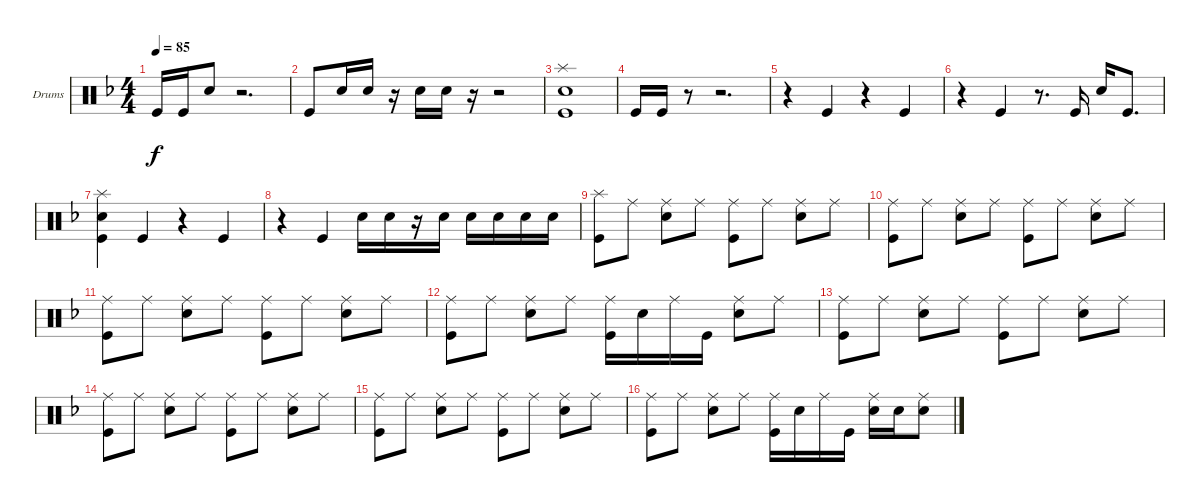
\bracketExtendMode groupsimilarinstruments
\firstSystemTrackNameOrientation horizontal
\otherSystemsTrackNameOrientation horizontal
\track ("Drumkit" "Drums") {instrument percussion}
\staff {score}
\articulation defaults
\ts (4 4)
\tempo 85
\clef neutral
\ks dminor "Kick (hit)".16{dy f} "Kick (hit)".16 "Snare (hit) 2".8
r.2{d} |
"Kick (hit)".8 "Snare (hit) 2".16 "Snare (hit) 2".16 r.16 "Snare (hit) 2".16 "Snare (hit) 2".16 r.16 r.2 |
("Kick (hit)" "Snare (hit) 2" "Splash (hit)").1 |
"Kick (hit)".16 "Kick (hit)".16 r.8 r.2{d} |
r.4 "Kick (hit)".4 r.4 "Kick (hit)".4 |
r.4 "Kick (hit)".4 r.8{d} "Kick (hit)".16 "Snare (hit) 2".16 "Kick (hit)".8{d} |
("Kick (hit)" "Snare (hit) 2" "Splash (hit)").4 "Kick (hit)".4 r.4 "Kick (hit)".4 |
r.4 "Kick (hit)".4 "Snare (hit) 2".16 "Snare (hit) 2".16 r.16 "Snare (hit) 2".16 "Snare (hit) 2".16 "Snare (hit) 2".16 "Snare (hit) 2".16 "Snare (hit) 2".16 |
("Splash (hit)" "Kick (hit)").8 "Ride (middle)".8 ("Ride (middle)" "Snare (hit) 2").8 "Ride (middle)".8 ("Ride (middle)" "Kick (hit)").8 "Ride (middle)".8 ("Ride (middle)" "Snare (hit) 2").8 "Ride (middle)".8 |
("Kick (hit)" "Ride (middle)").8 "Ride (middle)".8 ("Ride (middle)" "Snare (hit) 2").8 "Ride (middle)".8 ("Ride (middle)" "Kick (hit)").8 "Ride (middle)".8 ("Ride (middle)" "Snare (hit) 2").8 "Ride (middle)".8 |
("Kick (hit)" "Ride (middle)").8 "Ride (middle)".8 ("Ride (middle)" "Snare (hit) 2").8 "Ride (middle)".8 ("Ride (middle)" "Kick (hit)").8 "Ride (middle)".8 ("Ride (middle)" "Snare (hit) 2").8 "Ride (middle)".8 |
("Kick (hit)" "Ride (middle)").8 "Ride (middle)".8 ("Ride (middle)" "Snare (hit) 2").8 "Ride (middle)".8 ("Ride (middle)" "Kick (hit)").16 "Snare (hit) 2".16 "Ride (middle)".16 "Kick (hit)".16 ("Snare (hit) 2" "Ride (middle)").8 "Ride (middle)".8 |
("Kick (hit)" "Ride (middle)").8 "Ride (middle)".8 ("Ride (middle)" "Snare (hit) 2").8 "Ride (middle)".8 ("Ride (middle)" "Kick (hit)").8 "Ride (middle)".8 ("Ride (middle)" "Snare (hit) 2").8 "Ride (middle)".8 |
("Kick (hit)" "Ride (middle)").8 "Ride (middle)".8 ("Ride (middle)" "Snare (hit) 2").8 "Ride (middle)".8 ("Ride (middle)" "Kick (hit)").8 "Ride (middle)".8 ("Ride (middle)" "Snare (hit) 2").8 "Ride (middle)".8 |
("Kick (hit)" "Ride (middle)").8 "Ride (middle)".8 ("Ride (middle)" "Snare (hit) 2").8 "Ride (middle)".8 ("Ride (middle)" "Kick (hit)").8 "Ride (middle)".8 ("Ride (middle)" "Snare (hit) 2").8 "Ride (middle)".8 |
("Kick (hit)" "Ride (middle)").8 "Ride (middle)".8 ("Ride (middle)" "Snare (hit) 2").8 "Ride (middle)".8 ("Ride (middle)" "Kick (hit)").16 "Snare (hit) 2".16 "Ride (middle)".16 "Kick (hit)".16 ("Snare (hit) 2" "Ride (middle)").16 "Snare (hit) 2".16 ("Ride (middle)" "Snare (hit) 2").8
